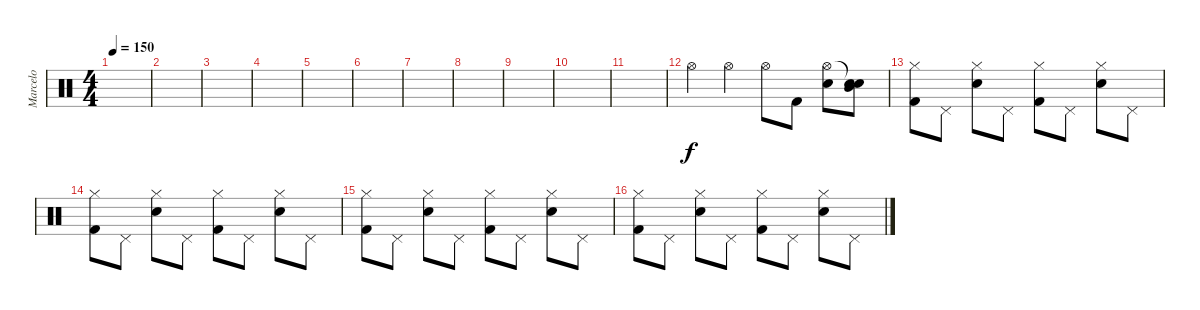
\track ("Marcelo" "Marcelo") {instrument percussion}
\staff {score}
\articulation defaults
\ts (4 4)
\tempo 150
\clef neutral
\ks c
|
|
|
|
|
|
|
|
|
|
|
"Hi-Hat (open)".4 "Hi-Hat (open)".4 "Hi-Hat (open)".8 "Kick (hit) 2".8 ("Hi-Hat (open)" "Snare (hit) 2").8 ("Snare (hit)"{t} "Mid Tom (hit)" "Snare (hit) 2").8 |
("Hi-Hat (closed)" "Kick (hit) 2").8 "Pedal Hi-Hat (hit)".8 ("Hi-Hat (closed)" "Electric Snare (hit)").8 "Pedal Hi-Hat (hit)".8 ("Hi-Hat (closed)" "Kick (hit) 2").8 "Pedal Hi-Hat (hit)".8 ("Hi-Hat (closed)" "Electric Snare (hit)").8 "Pedal Hi-Hat (hit)".8 |
("Hi-Hat (closed)" "Kick (hit) 2").8 "Pedal Hi-Hat (hit)".8 ("Hi-Hat (closed)" "Electric Snare (hit)").8 "Pedal Hi-Hat (hit)".8 ("Hi-Hat (closed)" "Kick (hit) 2").8 "Pedal Hi-Hat (hit)".8 ("Hi-Hat (closed)" "Electric Snare (hit)").8 "Pedal Hi-Hat (hit)".8 |
("Hi-Hat (closed)" "Kick (hit) 2").8 "Pedal Hi-Hat (hit)".8 ("Hi-Hat (closed)" "Electric Snare (hit)").8 "Pedal Hi-Hat (hit)".8 ("Hi-Hat (closed)" "Kick (hit) 2").8 "Pedal Hi-Hat (hit)".8 ("Hi-Hat (closed)" "Electric Snare (hit)").8 "Pedal Hi-Hat (hit)".8 |
("Hi-Hat (closed)" "Kick (hit) 2").8 "Pedal Hi-Hat (hit)".8 ("Hi-Hat (closed)" "Electric Snare (hit)").8 "Pedal Hi-Hat (hit)".8 ("Hi-Hat (closed)" "Kick (hit) 2").8 "Pedal Hi-Hat (hit)".8 ("Hi-Hat (closed)" "Electric Snare (hit)").8 "Pedal Hi-Hat (hit)".8
